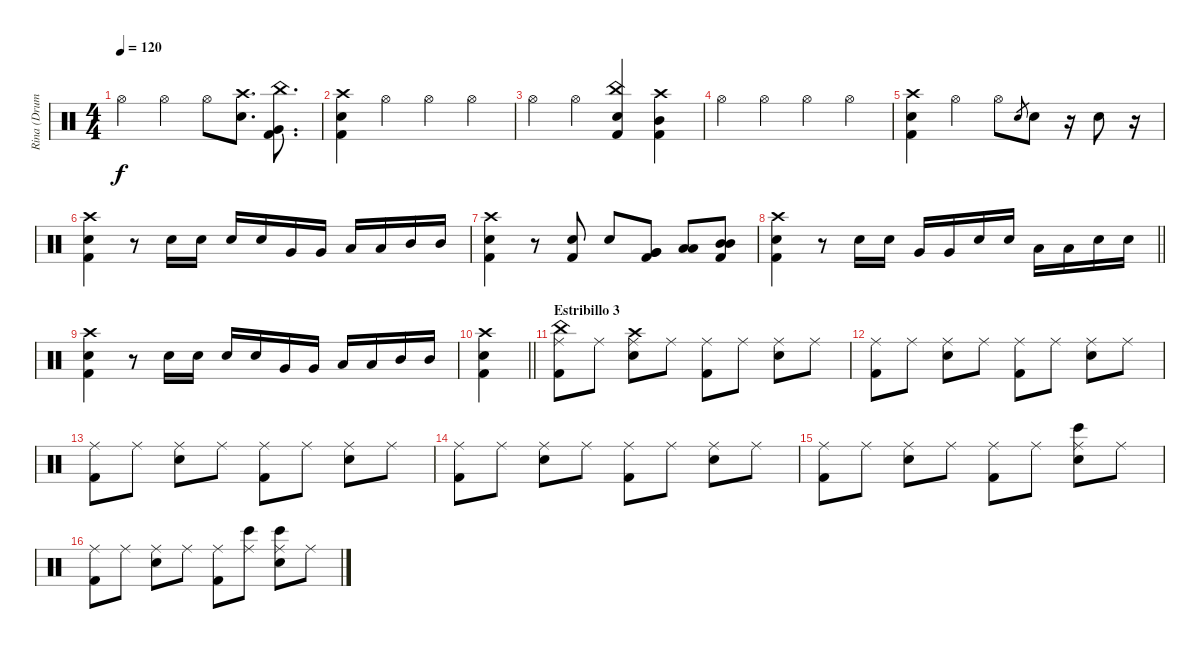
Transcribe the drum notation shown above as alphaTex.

\track ("Rina (Drums)" "Rina (Drum") {instrument percussion}
\staff {score}
\articulation defaults
\ts (4 4)
\tempo 120
\clef neutral
\ks c "Hi-Hat (open)".4{dy f} "Hi-Hat (open)".4 "Hi-Hat (open)".8
("Crash high (hit)" "Snare (hit) 2").8{d} ("China (hit)" "Very Low Tom (hit)" "Kick (hit) 2").8{d} |
("Crash high (hit)" "Snare (hit) 2" "Kick (hit) 2").4 "Hi-Hat (open)".4 "Hi-Hat (open)".4 "Hi-Hat (open)".4 |
"Hi-Hat (open)".4 "Hi-Hat (open)".4 ("China (hit)" "Snare (hit) 2" "Kick (hit) 2").4 ("Crash high (hit)" "Mid Tom (hit)" "Kick (hit) 2").4 |
"Hi-Hat (open)".4 "Hi-Hat (open)".4 "Hi-Hat (open)".4 "Hi-Hat (open)".4 |
("Crash high (hit)" "Snare (hit) 2" "Kick (hit) 2").4 "Hi-Hat (open)".4 "Hi-Hat (open)".8 "Snare (hit) 2".8{gr} "Snare (hit) 2".8 r.16 "Snare (hit) 2".8 r.16 |
("Crash high (hit)" "Snare (hit) 2" "Kick (hit) 2").4 r.8 "Snare (hit) 2".16 "Snare (hit) 2".16 "Snare (hit) 2".16 "Snare (hit) 2".16 "Very Low Tom (hit)".16 "Very Low Tom (hit)".16 "Low Tom (hit)".16 "Low Tom (hit)".16 "Mid Tom (hit)".16 "Mid Tom (hit)".16 |
("Crash high (hit)" "Snare (hit) 2" "Kick (hit) 2").4 r.8 ("Snare (hit) 2" "Kick (hit) 2").8 "Snare (hit) 2".8 ("Very Low Tom (hit)" "Very Low Tom (hit)" "Kick (hit) 2").8 ("Low Tom (hit)" "Low Tom (hit)").8 ("Mid Tom (hit)" "Mid Tom (hit)" "Kick (hit) 2").8 |
\barLineRight lightlight
("Crash high (hit)" "Snare (hit) 2" "Kick (hit) 2").4 r.8 "Snare (hit) 2".16 "Snare (hit) 2".16 "Very Low Tom (hit)".16 "Very Low Tom (hit)".16 "Snare (hit) 2".16 "Snare (hit) 2".16 "Low Tom (hit)".16 "Low Tom (hit)".16 "Snare (hit) 2".16 "Snare (hit) 2".16 |
("Crash high (hit)" "Snare (hit) 2" "Kick (hit) 2").4 r.8 "Snare (hit) 2".16 "Snare (hit) 2".16 "Snare (hit) 2".16 "Snare (hit) 2".16 "Very Low Tom (hit)".16 "Very Low Tom (hit)".16 "Low Tom (hit)".16 "Low Tom (hit)".16 "Mid Tom (hit)".16 "Mid Tom (hit)".16 |
\barLineRight lightlight
("Crash high (hit)" "Snare (hit) 2" "Kick (hit) 2").4 |
\section ("" "Estribillo 3")
("China (hit)" "Ride (middle)" "Kick (hit) 2").8 "Ride (middle)".8 ("Crash high (hit)" "Ride (middle)" "Snare (hit) 2").8 "Ride (middle)".8 ("Ride (middle)" "Kick (hit) 2").8 "Ride (middle)".8 ("Ride (middle)" "Snare (hit) 2").8 "Ride (middle)".8 |
("Ride (middle)" "Kick (hit) 2").8 "Ride (middle)".8 ("Ride (middle)" "Snare (hit) 2").8 "Ride (middle)".8 ("Ride (middle)" "Kick (hit) 2").8 "Ride (middle)".8 ("Ride (middle)" "Snare (hit) 2").8 "Ride (middle)".8 |
("Ride (middle)" "Kick (hit) 2").8 "Ride (middle)".8 ("Ride (middle)" "Snare (hit) 2").8 "Ride (middle)".8 ("Ride (middle)" "Kick (hit) 2").8 "Ride (middle)".8 ("Ride (middle)" "Snare (hit) 2").8 "Ride (middle)".8 |
("Ride (middle)" "Kick (hit) 2").8 "Ride (middle)".8 ("Ride (middle)" "Snare (hit) 2").8 "Ride (middle)".8 ("Ride (middle)" "Kick (hit) 2").8 "Ride (middle)".8 ("Ride (middle)" "Snare (hit) 2").8 "Ride (middle)".8 |
("Ride (middle)" "Kick (hit) 2").8 "Ride (middle)".8 ("Ride (middle)" "Snare (hit) 2").8 "Ride (middle)".8 ("Ride (middle)" "Kick (hit) 2").8 "Ride (middle)".8 ("Ride (middle)" "Bongo High (hit)" "Snare (hit) 2").8 "Ride (middle)".8 |
("Ride (middle)" "Kick (hit) 2").8 "Ride (middle)".8 ("Ride (middle)" "Snare (hit) 2").8 "Ride (middle)".8 ("Ride (middle)" "Kick (hit) 2").8 ("Ride (middle)" "Bongo High (hit)").8 ("Ride (middle)" "Bongo High (hit)" "Snare (hit) 2").8 "Ride (middle)".8
